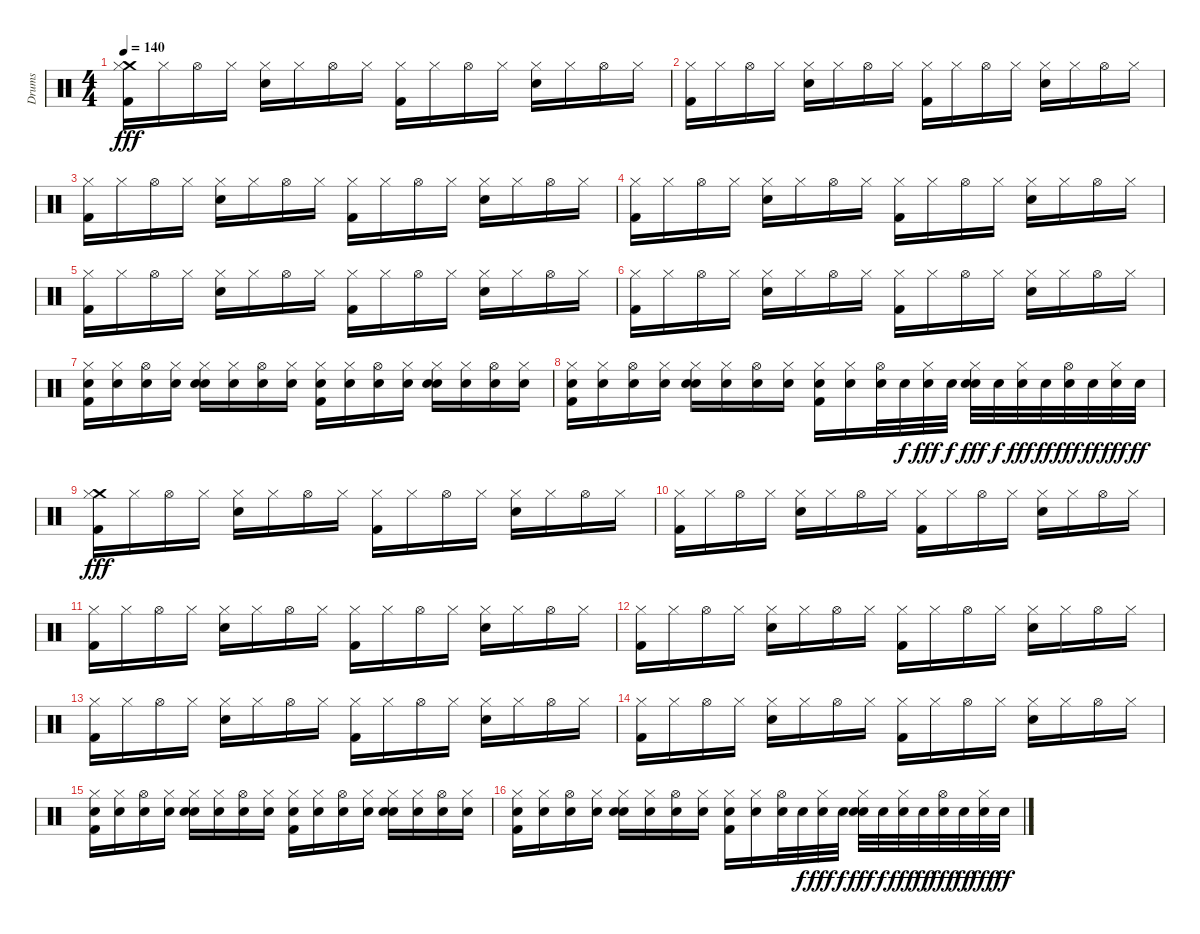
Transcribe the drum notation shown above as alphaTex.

\track ("Drums" "Drums") {instrument percussion}
\staff {score}
\articulation defaults
\ts (4 4)
\tempo 140
\clef neutral
\ks c
("Crash medium (hit)" "Hi-Hat (closed)" "Kick (hit) 2").16{dy fff} "Hi-Hat (closed)".16 "Hi-Hat (open)".16 "Hi-Hat (closed)".16 ("Hi-Hat (closed)" "Electric Snare (hit)").16 "Hi-Hat (closed)".16 "Hi-Hat (open)".16 "Hi-Hat (closed)".16 ("Hi-Hat (closed)" "Kick (hit) 2").16 "Hi-Hat (closed)".16 "Hi-Hat (open)".16 "Hi-Hat (closed)".16 ("Hi-Hat (closed)" "Electric Snare (hit)").16 "Hi-Hat (closed)".16 "Hi-Hat (open)".16 "Hi-Hat (closed)".16 |
("Hi-Hat (closed)" "Kick (hit) 2").16 "Hi-Hat (closed)".16 "Hi-Hat (open)".16 "Hi-Hat (closed)".16 ("Hi-Hat (closed)" "Electric Snare (hit)").16 "Hi-Hat (closed)".16 "Hi-Hat (open)".16 "Hi-Hat (closed)".16 ("Hi-Hat (closed)" "Kick (hit) 2").16 "Hi-Hat (closed)".16 "Hi-Hat (open)".16 "Hi-Hat (closed)".16 ("Hi-Hat (closed)" "Electric Snare (hit)").16 "Hi-Hat (closed)".16 "Hi-Hat (open)".16 "Hi-Hat (closed)".16 |
("Hi-Hat (closed)" "Kick (hit) 2").16 "Hi-Hat (closed)".16 "Hi-Hat (open)".16 "Hi-Hat (closed)".16 ("Hi-Hat (closed)" "Electric Snare (hit)").16 "Hi-Hat (closed)".16 "Hi-Hat (open)".16 "Hi-Hat (closed)".16 ("Hi-Hat (closed)" "Kick (hit) 2").16 "Hi-Hat (closed)".16 "Hi-Hat (open)".16 "Hi-Hat (closed)".16 ("Hi-Hat (closed)" "Electric Snare (hit)").16 "Hi-Hat (closed)".16 "Hi-Hat (open)".16 "Hi-Hat (closed)".16 |
("Hi-Hat (closed)" "Kick (hit) 2").16 "Hi-Hat (closed)".16 "Hi-Hat (open)".16 "Hi-Hat (closed)".16 ("Hi-Hat (closed)" "Electric Snare (hit)").16 "Hi-Hat (closed)".16 "Hi-Hat (open)".16 "Hi-Hat (closed)".16 ("Hi-Hat (closed)" "Kick (hit) 2").16 "Hi-Hat (closed)".16 "Hi-Hat (open)".16 "Hi-Hat (closed)".16 ("Hi-Hat (closed)" "Electric Snare (hit)").16 "Hi-Hat (closed)".16 "Hi-Hat (open)".16 "Hi-Hat (closed)".16 |
("Hi-Hat (closed)" "Kick (hit) 2").16 "Hi-Hat (closed)".16 "Hi-Hat (open)".16 "Hi-Hat (closed)".16 ("Hi-Hat (closed)" "Electric Snare (hit)").16 "Hi-Hat (closed)".16 "Hi-Hat (open)".16 "Hi-Hat (closed)".16 ("Hi-Hat (closed)" "Kick (hit) 2").16 "Hi-Hat (closed)".16 "Hi-Hat (open)".16 "Hi-Hat (closed)".16 ("Hi-Hat (closed)" "Electric Snare (hit)").16 "Hi-Hat (closed)".16 "Hi-Hat (open)".16 "Hi-Hat (closed)".16 |
("Hi-Hat (closed)" "Kick (hit) 2").16 "Hi-Hat (closed)".16 "Hi-Hat (open)".16 "Hi-Hat (closed)".16 ("Hi-Hat (closed)" "Electric Snare (hit)").16 "Hi-Hat (closed)".16 "Hi-Hat (open)".16 "Hi-Hat (closed)".16 ("Hi-Hat (closed)" "Kick (hit) 2").16 "Hi-Hat (closed)".16 "Hi-Hat (open)".16 "Hi-Hat (closed)".16 ("Hi-Hat (closed)" "Electric Snare (hit)").16 "Hi-Hat (closed)".16 "Hi-Hat (open)".16 "Hi-Hat (closed)".16 |
("Snare (hit) 2" "Hi-Hat (closed)" "Kick (hit) 2").16 ("Snare (hit) 2" "Hi-Hat (closed)").16 ("Snare (hit) 2" "Hi-Hat (open)").16 ("Snare (hit) 2" "Hi-Hat (closed)").16 ("Snare (hit) 2" "Hi-Hat (closed)" "Electric Snare (hit)").16 ("Snare (hit) 2" "Hi-Hat (closed)").16 ("Snare (hit) 2" "Hi-Hat (open)").16 ("Snare (hit) 2" "Hi-Hat (closed)").16 ("Snare (hit) 2" "Hi-Hat (closed)" "Kick (hit) 2").16 ("Snare (hit) 2" "Hi-Hat (closed)").16 ("Snare (hit) 2" "Hi-Hat (open)").16 ("Snare (hit) 2" "Hi-Hat (closed)").16 ("Snare (hit) 2" "Hi-Hat (closed)" "Electric Snare (hit)").16 ("Snare (hit) 2" "Hi-Hat (closed)").16 ("Snare (hit) 2" "Hi-Hat (open)").16 ("Snare (hit) 2" "Hi-Hat (closed)").16 |
("Snare (hit) 2" "Hi-Hat (closed)" "Kick (hit) 2").16 ("Snare (hit) 2" "Hi-Hat (closed)").16 ("Snare (hit) 2" "Hi-Hat (open)").16 ("Snare (hit) 2" "Hi-Hat (closed)").16 ("Snare (hit) 2" "Hi-Hat (closed)" "Electric Snare (hit)").16 ("Snare (hit) 2" "Hi-Hat (closed)").16 ("Snare (hit) 2" "Hi-Hat (open)").16 ("Snare (hit) 2" "Hi-Hat (closed)").16 ("Snare (hit) 2" "Hi-Hat (closed)" "Kick (hit) 2").16 ("Snare (hit) 2" "Hi-Hat (closed)").16 ("Snare (hit) 2" "Hi-Hat (open)").32 "Snare (hit) 2".32{dy f} ("Snare (hit) 2" "Hi-Hat (closed)").32{dy fff} "Snare (hit) 2".32{dy f} ("Snare (hit) 2" "Hi-Hat (closed)" "Electric Snare (hit)").32{dy fff} "Snare (hit) 2".32{dy f} ("Snare (hit) 2" "Hi-Hat (closed)").32{dy fff} "Snare (hit) 2".32{dy ff} ("Snare (hit) 2" "Hi-Hat (open)").32{dy fff} "Snare (hit) 2".32{dy ff} ("Snare (hit) 2" "Hi-Hat (closed)").32{dy fff} "Snare (hit) 2".32{dy ff} |
("Crash medium (hit)" "Hi-Hat (closed)" "Kick (hit) 2").16{dy fff} "Hi-Hat (closed)".16 "Hi-Hat (open)".16 "Hi-Hat (closed)".16 ("Hi-Hat (closed)" "Electric Snare (hit)").16 "Hi-Hat (closed)".16 "Hi-Hat (open)".16 "Hi-Hat (closed)".16 ("Hi-Hat (closed)" "Kick (hit) 2").16 "Hi-Hat (closed)".16 "Hi-Hat (open)".16 "Hi-Hat (closed)".16 ("Hi-Hat (closed)" "Electric Snare (hit)").16 "Hi-Hat (closed)".16 "Hi-Hat (open)".16 "Hi-Hat (closed)".16 |
("Hi-Hat (closed)" "Kick (hit) 2").16 "Hi-Hat (closed)".16 "Hi-Hat (open)".16 "Hi-Hat (closed)".16 ("Hi-Hat (closed)" "Electric Snare (hit)").16 "Hi-Hat (closed)".16 "Hi-Hat (open)".16 "Hi-Hat (closed)".16 ("Hi-Hat (closed)" "Kick (hit) 2").16 "Hi-Hat (closed)".16 "Hi-Hat (open)".16 "Hi-Hat (closed)".16 ("Hi-Hat (closed)" "Electric Snare (hit)").16 "Hi-Hat (closed)".16 "Hi-Hat (open)".16 "Hi-Hat (closed)".16 |
("Hi-Hat (closed)" "Kick (hit) 2").16 "Hi-Hat (closed)".16 "Hi-Hat (open)".16 "Hi-Hat (closed)".16 ("Hi-Hat (closed)" "Electric Snare (hit)").16 "Hi-Hat (closed)".16 "Hi-Hat (open)".16 "Hi-Hat (closed)".16 ("Hi-Hat (closed)" "Kick (hit) 2").16 "Hi-Hat (closed)".16 "Hi-Hat (open)".16 "Hi-Hat (closed)".16 ("Hi-Hat (closed)" "Electric Snare (hit)").16 "Hi-Hat (closed)".16 "Hi-Hat (open)".16 "Hi-Hat (closed)".16 |
("Hi-Hat (closed)" "Kick (hit) 2").16 "Hi-Hat (closed)".16 "Hi-Hat (open)".16 "Hi-Hat (closed)".16 ("Hi-Hat (closed)" "Electric Snare (hit)").16 "Hi-Hat (closed)".16 "Hi-Hat (open)".16 "Hi-Hat (closed)".16 ("Hi-Hat (closed)" "Kick (hit) 2").16 "Hi-Hat (closed)".16 "Hi-Hat (open)".16 "Hi-Hat (closed)".16 ("Hi-Hat (closed)" "Electric Snare (hit)").16 "Hi-Hat (closed)".16 "Hi-Hat (open)".16 "Hi-Hat (closed)".16 |
("Hi-Hat (closed)" "Kick (hit) 2").16 "Hi-Hat (closed)".16 "Hi-Hat (open)".16 "Hi-Hat (closed)".16 ("Hi-Hat (closed)" "Electric Snare (hit)").16 "Hi-Hat (closed)".16 "Hi-Hat (open)".16 "Hi-Hat (closed)".16 ("Hi-Hat (closed)" "Kick (hit) 2").16 "Hi-Hat (closed)".16 "Hi-Hat (open)".16 "Hi-Hat (closed)".16 ("Hi-Hat (closed)" "Electric Snare (hit)").16 "Hi-Hat (closed)".16 "Hi-Hat (open)".16 "Hi-Hat (closed)".16 |
("Hi-Hat (closed)" "Kick (hit) 2").16 "Hi-Hat (closed)".16 "Hi-Hat (open)".16 "Hi-Hat (closed)".16 ("Hi-Hat (closed)" "Electric Snare (hit)").16 "Hi-Hat (closed)".16 "Hi-Hat (open)".16 "Hi-Hat (closed)".16 ("Hi-Hat (closed)" "Kick (hit) 2").16 "Hi-Hat (closed)".16 "Hi-Hat (open)".16 "Hi-Hat (closed)".16 ("Hi-Hat (closed)" "Electric Snare (hit)").16 "Hi-Hat (closed)".16 "Hi-Hat (open)".16 "Hi-Hat (closed)".16 |
("Snare (hit) 2" "Hi-Hat (closed)" "Kick (hit) 2").16 ("Snare (hit) 2" "Hi-Hat (closed)").16 ("Snare (hit) 2" "Hi-Hat (open)").16 ("Snare (hit) 2" "Hi-Hat (closed)").16 ("Snare (hit) 2" "Hi-Hat (closed)" "Electric Snare (hit)").16 ("Snare (hit) 2" "Hi-Hat (closed)").16 ("Snare (hit) 2" "Hi-Hat (open)").16 ("Snare (hit) 2" "Hi-Hat (closed)").16 ("Snare (hit) 2" "Hi-Hat (closed)" "Kick (hit) 2").16 ("Snare (hit) 2" "Hi-Hat (closed)").16 ("Snare (hit) 2" "Hi-Hat (open)").16 ("Snare (hit) 2" "Hi-Hat (closed)").16 ("Snare (hit) 2" "Hi-Hat (closed)" "Electric Snare (hit)").16 ("Snare (hit) 2" "Hi-Hat (closed)").16 ("Snare (hit) 2" "Hi-Hat (open)").16 ("Snare (hit) 2" "Hi-Hat (closed)").16 |
("Snare (hit) 2" "Hi-Hat (closed)" "Kick (hit) 2").16 ("Snare (hit) 2" "Hi-Hat (closed)").16 ("Snare (hit) 2" "Hi-Hat (open)").16 ("Snare (hit) 2" "Hi-Hat (closed)").16 ("Snare (hit) 2" "Hi-Hat (closed)" "Electric Snare (hit)").16 ("Snare (hit) 2" "Hi-Hat (closed)").16 ("Snare (hit) 2" "Hi-Hat (open)").16 ("Snare (hit) 2" "Hi-Hat (closed)").16 ("Snare (hit) 2" "Hi-Hat (closed)" "Kick (hit) 2").16 ("Snare (hit) 2" "Hi-Hat (closed)").16 ("Snare (hit) 2" "Hi-Hat (open)").32 "Snare (hit) 2".32{dy f} ("Snare (hit) 2" "Hi-Hat (closed)").32{dy fff} "Snare (hit) 2".32{dy f} ("Snare (hit) 2" "Hi-Hat (closed)" "Electric Snare (hit)").32{dy fff} "Snare (hit) 2".32{dy f} ("Snare (hit) 2" "Hi-Hat (closed)").32{dy fff} "Snare (hit) 2".32{dy ff} ("Snare (hit) 2" "Hi-Hat (open)").32{dy fff} "Snare (hit) 2".32{dy ff} ("Snare (hit) 2" "Hi-Hat (closed)").32{dy fff} "Snare (hit) 2".32{dy ff}
